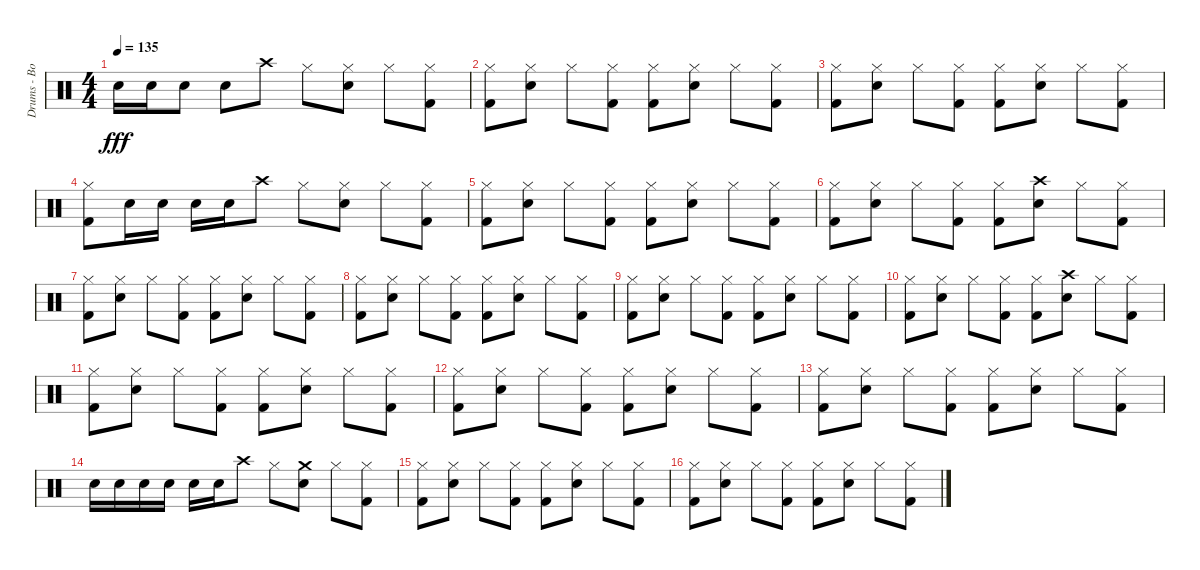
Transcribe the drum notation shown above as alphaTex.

\track ("Drums - Bobby Schayer" "Drums - Bo") {instrument percussion}
\staff {score}
\articulation defaults
\ts (4 4)
\tempo 135
\clef neutral
\ks c "Electric Snare (hit)".16{dy fff} "Electric Snare (hit)".16 "Electric Snare (hit)".8 "Electric Snare (hit)".8 "Crash high (hit)".8 "Hi-Hat (closed)".8
("Hi-Hat (closed)" "Electric Snare (hit)").8 "Hi-Hat (closed)".8 ("Hi-Hat (closed)" "Kick (hit) 2").8 |
("Hi-Hat (closed)" "Kick (hit) 2").8 ("Hi-Hat (closed)" "Electric Snare (hit)").8 "Hi-Hat (closed)".8 ("Hi-Hat (closed)" "Kick (hit) 2").8 ("Hi-Hat (closed)" "Kick (hit) 2").8 ("Hi-Hat (closed)" "Electric Snare (hit)").8 "Hi-Hat (closed)".8 ("Hi-Hat (closed)" "Kick (hit) 2").8 |
("Hi-Hat (closed)" "Kick (hit) 2").8 ("Hi-Hat (closed)" "Electric Snare (hit)").8 "Hi-Hat (closed)".8 ("Hi-Hat (closed)" "Kick (hit) 2").8 ("Hi-Hat (closed)" "Kick (hit) 2").8 ("Hi-Hat (closed)" "Electric Snare (hit)").8 "Hi-Hat (closed)".8 ("Hi-Hat (closed)" "Kick (hit) 2").8 |
("Hi-Hat (closed)" "Kick (hit) 2").8 "Electric Snare (hit)".16 "Electric Snare (hit)".16 "Electric Snare (hit)".16 "Electric Snare (hit)".16 "Crash high (hit)".8 "Hi-Hat (closed)".8 ("Hi-Hat (closed)" "Electric Snare (hit)").8 "Hi-Hat (closed)".8 ("Hi-Hat (closed)" "Kick (hit) 2").8 |
("Hi-Hat (closed)" "Kick (hit) 2").8 ("Hi-Hat (closed)" "Electric Snare (hit)").8 "Hi-Hat (closed)".8 ("Hi-Hat (closed)" "Kick (hit) 2").8 ("Hi-Hat (closed)" "Kick (hit) 2").8 ("Hi-Hat (closed)" "Electric Snare (hit)").8 "Hi-Hat (closed)".8 ("Hi-Hat (closed)" "Kick (hit) 2").8 |
("Hi-Hat (closed)" "Kick (hit) 2").8 ("Hi-Hat (closed)" "Electric Snare (hit)").8 "Hi-Hat (closed)".8 ("Hi-Hat (closed)" "Kick (hit) 2").8 ("Hi-Hat (closed)" "Kick (hit) 2").8 ("Crash high (hit)" "Electric Snare (hit)").8 "Hi-Hat (closed)".8 ("Hi-Hat (closed)" "Kick (hit) 2").8 |
("Hi-Hat (closed)" "Kick (hit) 2").8 ("Hi-Hat (closed)" "Electric Snare (hit)").8 "Hi-Hat (closed)".8 ("Hi-Hat (closed)" "Kick (hit) 2").8 ("Hi-Hat (closed)" "Kick (hit) 2").8 ("Hi-Hat (closed)" "Electric Snare (hit)").8 "Hi-Hat (closed)".8 ("Hi-Hat (closed)" "Kick (hit) 2").8 |
("Hi-Hat (closed)" "Kick (hit) 2").8 ("Hi-Hat (closed)" "Electric Snare (hit)").8 "Hi-Hat (closed)".8 ("Hi-Hat (closed)" "Kick (hit) 2").8 ("Hi-Hat (closed)" "Kick (hit) 2").8 ("Hi-Hat (closed)" "Electric Snare (hit)").8 "Hi-Hat (closed)".8 ("Hi-Hat (closed)" "Kick (hit) 2").8 |
("Hi-Hat (closed)" "Kick (hit) 2").8 ("Hi-Hat (closed)" "Electric Snare (hit)").8 "Hi-Hat (closed)".8 ("Hi-Hat (closed)" "Kick (hit) 2").8 ("Hi-Hat (closed)" "Kick (hit) 2").8 ("Hi-Hat (closed)" "Electric Snare (hit)").8 "Hi-Hat (closed)".8 ("Hi-Hat (closed)" "Kick (hit) 2").8 |
("Hi-Hat (closed)" "Kick (hit) 2").8 ("Hi-Hat (closed)" "Electric Snare (hit)").8 "Hi-Hat (closed)".8 ("Hi-Hat (closed)" "Kick (hit) 2").8 ("Hi-Hat (closed)" "Kick (hit) 2").8 ("Crash high (hit)" "Electric Snare (hit)").8 "Hi-Hat (closed)".8 ("Hi-Hat (closed)" "Kick (hit) 2").8 |
("Hi-Hat (closed)" "Kick (hit) 2").8 ("Hi-Hat (closed)" "Electric Snare (hit)").8 "Hi-Hat (closed)".8 ("Hi-Hat (closed)" "Kick (hit) 2").8 ("Hi-Hat (closed)" "Kick (hit) 2").8 ("Hi-Hat (closed)" "Electric Snare (hit)").8 "Hi-Hat (closed)".8 ("Hi-Hat (closed)" "Kick (hit) 2").8 |
("Hi-Hat (closed)" "Kick (hit) 2").8 ("Hi-Hat (closed)" "Electric Snare (hit)").8 "Hi-Hat (closed)".8 ("Hi-Hat (closed)" "Kick (hit) 2").8 ("Hi-Hat (closed)" "Kick (hit) 2").8 ("Hi-Hat (closed)" "Electric Snare (hit)").8 "Hi-Hat (closed)".8 ("Hi-Hat (closed)" "Kick (hit) 2").8 |
("Hi-Hat (closed)" "Kick (hit) 2").8 ("Hi-Hat (closed)" "Electric Snare (hit)").8 "Hi-Hat (closed)".8 ("Hi-Hat (closed)" "Kick (hit) 2").8 ("Hi-Hat (closed)" "Kick (hit) 2").8 ("Hi-Hat (closed)" "Electric Snare (hit)").8 "Hi-Hat (closed)".8 ("Hi-Hat (closed)" "Kick (hit) 2").8 |
"Electric Snare (hit)".16 "Electric Snare (hit)".16 "Electric Snare (hit)".16 "Electric Snare (hit)".16 "Electric Snare (hit)".16 "Electric Snare (hit)".16 "Crash high (hit)".8 "Hi-Hat (closed)".8 ("Crash medium (hit)" "Electric Snare (hit)").8 "Hi-Hat (closed)".8 ("Hi-Hat (closed)" "Kick (hit) 2").8 |
("Hi-Hat (closed)" "Kick (hit) 2").8 ("Hi-Hat (closed)" "Electric Snare (hit)").8 "Hi-Hat (closed)".8 ("Hi-Hat (closed)" "Kick (hit) 2").8 ("Hi-Hat (closed)" "Kick (hit) 2").8 ("Hi-Hat (closed)" "Electric Snare (hit)").8 "Hi-Hat (closed)".8 ("Hi-Hat (closed)" "Kick (hit) 2").8 |
("Hi-Hat (closed)" "Kick (hit) 2").8 ("Hi-Hat (closed)" "Electric Snare (hit)").8 "Hi-Hat (closed)".8 ("Hi-Hat (closed)" "Kick (hit) 2").8 ("Hi-Hat (closed)" "Kick (hit) 2").8 ("Hi-Hat (closed)" "Electric Snare (hit)").8 "Hi-Hat (closed)".8 ("Hi-Hat (closed)" "Kick (hit) 2").8
